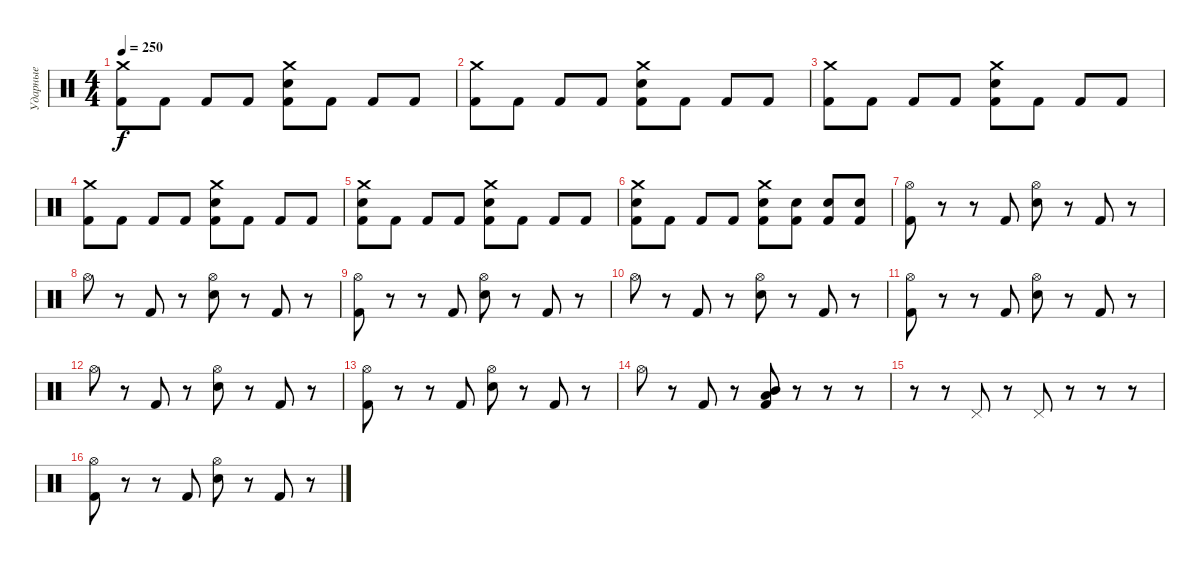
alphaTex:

\track ("Ударные" "Ударные") {instrument percussion}
\staff {score}
\articulation defaults
\ts (4 4)
\tempo 250
\clef neutral
\ks c
("Crash medium (hit)" "Kick (hit) 2").8{dy f} "Kick (hit) 2".8 "Kick (hit) 2".8 "Kick (hit) 2".8 ("Crash medium (hit)" "Snare (hit) 2" "Kick (hit) 2").8 "Kick (hit) 2".8 "Kick (hit) 2".8 "Kick (hit) 2".8 |
("Crash medium (hit)" "Kick (hit) 2").8 "Kick (hit) 2".8 "Kick (hit) 2".8 "Kick (hit) 2".8 ("Crash medium (hit)" "Snare (hit) 2" "Kick (hit) 2").8 "Kick (hit) 2".8 "Kick (hit) 2".8 "Kick (hit) 2".8 |
("Crash medium (hit)" "Kick (hit) 2").8 "Kick (hit) 2".8 "Kick (hit) 2".8 "Kick (hit) 2".8 ("Crash medium (hit)" "Snare (hit) 2" "Kick (hit) 2").8 "Kick (hit) 2".8 "Kick (hit) 2".8 "Kick (hit) 2".8 |
("Crash medium (hit)" "Kick (hit) 2").8 "Kick (hit) 2".8 "Kick (hit) 2".8 "Kick (hit) 2".8 ("Crash medium (hit)" "Snare (hit) 2" "Kick (hit) 2").8 "Kick (hit) 2".8 "Kick (hit) 2".8 "Kick (hit) 2".8 |
("Crash medium (hit)" "Snare (hit) 2" "Kick (hit) 2").8 "Kick (hit) 2".8 "Kick (hit) 2".8 "Kick (hit) 2".8 ("Crash medium (hit)" "Snare (hit) 2" "Kick (hit) 2").8 "Kick (hit) 2".8 "Kick (hit) 2".8 "Kick (hit) 2".8 |
("Crash medium (hit)" "Snare (hit) 2" "Kick (hit) 2").8 "Kick (hit) 2".8 "Kick (hit) 2".8 "Kick (hit) 2".8 ("Crash medium (hit)" "Snare (hit) 2" "Kick (hit) 2").8 ("Snare (hit) 2" "Kick (hit) 2").8 ("Snare (hit) 2" "Kick (hit) 2").8 ("Snare (hit) 2" "Kick (hit) 2").8 |
("Hi-Hat (open)" "Kick (hit) 2").8 r.8 r.8 "Kick (hit) 2".8 ("Hi-Hat (open)" "Snare (hit) 2").8 r.8 "Kick (hit) 2".8 r.8 |
"Hi-Hat (open)".8 r.8 "Kick (hit) 2".8 r.8 ("Hi-Hat (open)" "Snare (hit) 2").8 r.8 "Kick (hit) 2".8 r.8 |
("Hi-Hat (open)" "Kick (hit) 2").8 r.8 r.8 "Kick (hit) 2".8 ("Hi-Hat (open)" "Snare (hit) 2").8 r.8 "Kick (hit) 2".8 r.8 |
"Hi-Hat (open)".8 r.8 "Kick (hit) 2".8 r.8 ("Hi-Hat (open)" "Snare (hit) 2").8 r.8 "Kick (hit) 2".8 r.8 |
("Hi-Hat (open)" "Kick (hit) 2").8 r.8 r.8 "Kick (hit) 2".8 ("Hi-Hat (open)" "Snare (hit) 2").8 r.8 "Kick (hit) 2".8 r.8 |
"Hi-Hat (open)".8 r.8 "Kick (hit) 2".8 r.8 ("Hi-Hat (open)" "Snare (hit) 2").8 r.8 "Kick (hit) 2".8 r.8 |
("Hi-Hat (open)" "Kick (hit) 2").8 r.8 r.8 "Kick (hit) 2".8 ("Hi-Hat (open)" "Snare (hit) 2").8 r.8 "Kick (hit) 2".8 r.8 |
"Hi-Hat (open)".8 r.8 "Kick (hit) 2".8 r.8 ("Kick (hit) 2" "Low Tom (hit)" "Mid Tom (hit)").8 r.8 r.8 r.8 |
r.8 r.8 "Pedal Hi-Hat (hit)".8 r.8 "Pedal Hi-Hat (hit)".8 r.8 r.8 r.8 |
("Hi-Hat (open)" "Kick (hit) 2").8 r.8 r.8 "Kick (hit) 2".8 ("Hi-Hat (open)" "Snare (hit) 2").8 r.8 "Kick (hit) 2".8 r.8
